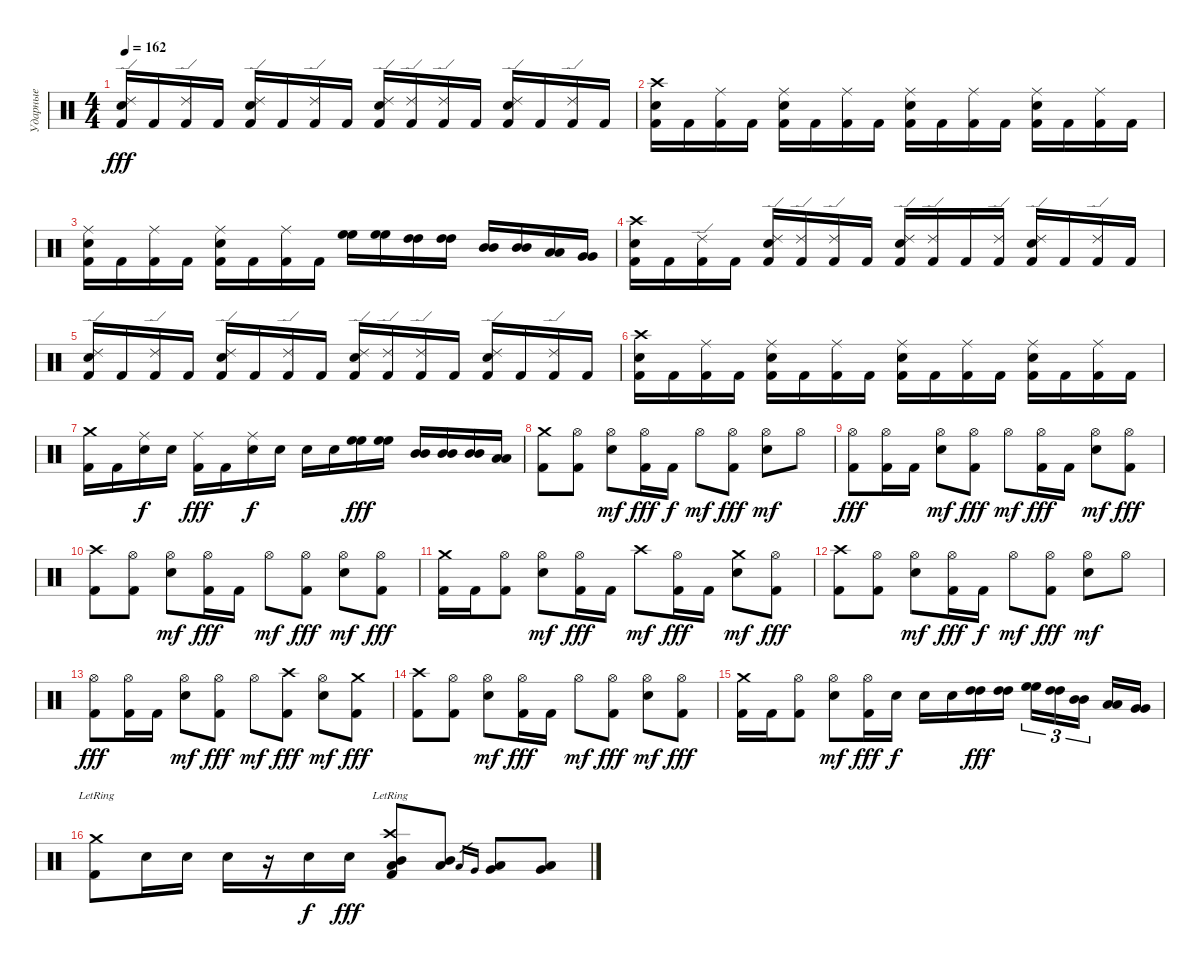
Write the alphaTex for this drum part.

\track ("Ударные" "Ударные") {instrument percussion}
\staff {score}
\articulation defaults
\ts (4 4)
\tempo 162
\clef neutral
\ks c
("Ride (edge) 2" "Electric Snare (hit)" "Kick (hit) 2").16{dy fff} "Kick (hit) 2".16 ("Ride (edge) 2" "Kick (hit) 2").16 "Kick (hit) 2".16 ("Ride (edge) 2" "Electric Snare (hit)" "Kick (hit) 2").16 "Kick (hit) 2".16 ("Ride (edge) 2" "Kick (hit) 2").16 "Kick (hit) 2".16 ("Ride (edge) 2" "Electric Snare (hit)" "Kick (hit) 2").16 ("Ride (edge) 2" "Kick (hit) 2").16 ("Ride (edge) 2" "Kick (hit) 2").16 "Kick (hit) 2".16 ("Ride (edge) 2" "Electric Snare (hit)" "Kick (hit) 2").16 "Kick (hit) 2".16 ("Ride (edge) 2" "Kick (hit) 2").16 "Kick (hit) 2".16 |
("Crash high (hit)" "Electric Snare (hit)" "Kick (hit) 2").16 "Kick (hit) 2".16 ("Ride (middle)" "Kick (hit) 2").16 "Kick (hit) 2".16 ("Ride (middle)" "Electric Snare (hit)" "Kick (hit) 2").16 "Kick (hit) 2".16 ("Ride (middle)" "Kick (hit) 2").16 "Kick (hit) 2".16 ("Ride (middle)" "Electric Snare (hit)" "Kick (hit) 2").16 "Kick (hit) 2".16 ("Ride (middle)" "Kick (hit) 2").16 "Kick (hit) 2".16 ("Ride (middle)" "Electric Snare (hit)" "Kick (hit) 2").16 "Kick (hit) 2".16 ("Ride (middle)" "Kick (hit) 2").16 "Kick (hit) 2".16 |
("Ride (middle)" "Electric Snare (hit)" "Kick (hit) 2").16 "Kick (hit) 2".16 ("Ride (middle)" "Kick (hit) 2").16 "Kick (hit) 2".16 ("Ride (middle)" "Electric Snare (hit)" "Kick (hit) 2").16 "Kick (hit) 2".16 ("Ride (middle)" "Kick (hit) 2").16 "Kick (hit) 2".16 ("High Floor Tom (hit)" "High Floor Tom (hit)").16 ("High Floor Tom (hit)" "High Floor Tom (hit)").16 ("High Tom (hit)" "High Tom (hit)").16 ("High Tom (hit)" "High Tom (hit)").16 ("Mid Tom (hit)" "Mid Tom (hit)").16 ("Mid Tom (hit)" "Mid Tom (hit)").16 ("Low Tom (hit)" "Low Tom (hit)").16 ("Very Low Tom (hit)" "Very Low Tom (hit)").16 |
("Crash high (hit)" "Electric Snare (hit)" "Kick (hit) 2").16 "Kick (hit) 2".16 ("Ride (edge) 2" "Kick (hit) 2").16 "Kick (hit) 2".16 ("Ride (edge) 2" "Electric Snare (hit)" "Kick (hit) 2").16 ("Ride (edge) 2" "Kick (hit) 2").16 ("Ride (edge) 2" "Kick (hit) 2").16 "Kick (hit) 2".16 ("Ride (edge) 2" "Electric Snare (hit)" "Kick (hit) 2").16 ("Ride (edge) 2" "Kick (hit) 2").16 "Kick (hit) 2".16 ("Ride (edge) 2" "Kick (hit) 2").16 ("Ride (edge) 2" "Electric Snare (hit)" "Kick (hit) 2").16 "Kick (hit) 2".16 ("Ride (edge) 2" "Kick (hit) 2").16 "Kick (hit) 2".16 |
("Ride (edge) 2" "Electric Snare (hit)" "Kick (hit) 2").16 "Kick (hit) 2".16 ("Ride (edge) 2" "Kick (hit) 2").16 "Kick (hit) 2".16 ("Ride (edge) 2" "Electric Snare (hit)" "Kick (hit) 2").16 "Kick (hit) 2".16 ("Ride (edge) 2" "Kick (hit) 2").16 "Kick (hit) 2".16 ("Ride (edge) 2" "Electric Snare (hit)" "Kick (hit) 2").16 ("Ride (edge) 2" "Kick (hit) 2").16 ("Ride (edge) 2" "Kick (hit) 2").16 "Kick (hit) 2".16 ("Ride (edge) 2" "Electric Snare (hit)" "Kick (hit) 2").16 "Kick (hit) 2".16 ("Ride (edge) 2" "Kick (hit) 2").16 "Kick (hit) 2".16 |
("Crash high (hit)" "Electric Snare (hit)" "Kick (hit) 2").16 "Kick (hit) 2".16 ("Ride (middle)" "Kick (hit) 2").16 "Kick (hit) 2".16 ("Ride (middle)" "Electric Snare (hit)" "Kick (hit) 2").16 "Kick (hit) 2".16 ("Ride (middle)" "Kick (hit) 2").16 "Kick (hit) 2".16 ("Ride (middle)" "Electric Snare (hit)" "Kick (hit) 2").16 "Kick (hit) 2".16 ("Ride (middle)" "Kick (hit) 2").16 "Kick (hit) 2".16 ("Ride (middle)" "Electric Snare (hit)" "Kick (hit) 2").16 "Kick (hit) 2".16 ("Ride (middle)" "Kick (hit) 2").16 "Kick (hit) 2".16 |
("Crash medium (hit)" "Kick (hit) 2").16 "Kick (hit) 2".16 ("Ride (middle)" "Electric Snare (hit)").16{dy f} "Electric Snare (hit)".16 ("Ride (middle)" "Kick (hit) 2").16{dy fff} "Kick (hit) 2".16 ("Ride (middle)" "Electric Snare (hit)").16{dy f} "Electric Snare (hit)".16 "Electric Snare (hit)".16 "Electric Snare (hit)".16 ("High Floor Tom (hit)" "High Floor Tom (hit)").16{dy fff} ("High Floor Tom (hit)" "High Floor Tom (hit)").16 ("Mid Tom (hit)" "Mid Tom (hit)").16 ("Mid Tom (hit)" "Mid Tom (hit)").16 ("Mid Tom (hit)" "Mid Tom (hit)").16 ("Low Tom (hit)" "Low Tom (hit)").16 |
("Crash medium (hit)" "Kick (hit) 2").8 ("Hi-Hat (open)" "Kick (hit) 2").8 ("Hi-Hat (open)" "Electric Snare (hit)").8{dy mf} ("Hi-Hat (open)" "Kick (hit) 2").16{dy fff} "Kick (hit) 2".16{dy f} "Hi-Hat (open)".8{dy mf} ("Hi-Hat (open)" "Kick (hit) 2").8{dy fff} ("Hi-Hat (open)" "Electric Snare (hit)").8{dy mf} "Hi-Hat (open)".8 |
("Hi-Hat (open)" "Kick (hit) 2").8{dy fff} ("Hi-Hat (open)" "Kick (hit) 2").16 "Kick (hit) 2".16 ("Hi-Hat (open)" "Electric Snare (hit)").8{dy mf} ("Hi-Hat (open)" "Kick (hit) 2").8{dy fff} "Hi-Hat (open)".8{dy mf} ("Hi-Hat (open)" "Kick (hit) 2").16{dy fff} "Kick (hit) 2".16 ("Hi-Hat (open)" "Electric Snare (hit)").8{dy mf} ("Hi-Hat (open)" "Kick (hit) 2").8{dy fff} |
("Crash high (hit)" "Kick (hit) 2").8 ("Hi-Hat (open)" "Kick (hit) 2").8 ("Hi-Hat (open)" "Electric Snare (hit)").8{dy mf} ("Hi-Hat (open)" "Kick (hit) 2").16{dy fff} "Kick (hit) 2".16 "Hi-Hat (open)".8{dy mf} ("Hi-Hat (open)" "Kick (hit) 2").8{dy fff} ("Hi-Hat (open)" "Electric Snare (hit)").8{dy mf} ("Hi-Hat (open)" "Kick (hit) 2").8{dy fff} |
("Crash medium (hit)" "Kick (hit) 2").16 "Kick (hit) 2".16 ("Hi-Hat (open)" "Kick (hit) 2").8 ("Hi-Hat (open)" "Electric Snare (hit)").8{dy mf} ("Hi-Hat (open)" "Kick (hit) 2").16{dy fff} "Kick (hit) 2".16 "Crash high (hit)".8{dy mf} ("Hi-Hat (open)" "Kick (hit) 2").16{dy fff} "Kick (hit) 2".16 ("Crash medium (hit)" "Electric Snare (hit)").8{dy mf} ("Hi-Hat (open)" "Kick (hit) 2").8{dy fff} |
("Crash high (hit)" "Kick (hit) 2").8 ("Hi-Hat (open)" "Kick (hit) 2").8 ("Hi-Hat (open)" "Electric Snare (hit)").8{dy mf} ("Hi-Hat (open)" "Kick (hit) 2").16{dy fff} "Kick (hit) 2".16{dy f} "Hi-Hat (open)".8{dy mf} ("Hi-Hat (open)" "Kick (hit) 2").8{dy fff} ("Hi-Hat (open)" "Electric Snare (hit)").8{dy mf} "Hi-Hat (open)".8 |
("Hi-Hat (open)" "Kick (hit) 2").8{dy fff} ("Hi-Hat (open)" "Kick (hit) 2").16 "Kick (hit) 2".16 ("Hi-Hat (open)" "Electric Snare (hit)").8{dy mf} ("Hi-Hat (open)" "Kick (hit) 2").8{dy fff} "Hi-Hat (open)".8{dy mf} ("Crash high (hit)" "Kick (hit) 2").8{dy fff} ("Hi-Hat (open)" "Electric Snare (hit)").8{dy mf} ("Crash medium (hit)" "Kick (hit) 2").8{dy fff} |
("Crash high (hit)" "Kick (hit) 2").8 ("Hi-Hat (open)" "Kick (hit) 2").8 ("Hi-Hat (open)" "Electric Snare (hit)").8{dy mf} ("Hi-Hat (open)" "Kick (hit) 2").16{dy fff} "Kick (hit) 2".16 "Hi-Hat (open)".8{dy mf} ("Hi-Hat (open)" "Kick (hit) 2").8{dy fff} ("Hi-Hat (open)" "Electric Snare (hit)").8{dy mf} ("Hi-Hat (open)" "Kick (hit) 2").8{dy fff} |
("Crash medium (hit)" "Kick (hit) 2").16 "Kick (hit) 2".16 ("Hi-Hat (open)" "Kick (hit) 2").8 ("Hi-Hat (open)" "Electric Snare (hit)").8{dy mf} ("Hi-Hat (open)" "Kick (hit) 2").16{dy fff} "Electric Snare (hit)".16{dy f} "Electric Snare (hit)".16 "Electric Snare (hit)".16 ("High Tom (hit)" "High Tom (hit)").16{dy fff} ("High Tom (hit)" "High Tom (hit)").16 ("High Floor Tom (hit)" "High Floor Tom (hit)").16{tu (3 2)} ("High Tom (hit)" "High Tom (hit)").16{tu (3 2)} ("Mid Tom (hit)" "Mid Tom (hit)").16{tu (3 2)} ("Low Tom (hit)" "Low Tom (hit)").16 ("Very Low Tom (hit)" "Very Low Tom (hit)").16 |
("Crash medium (hit)"{lr} "Kick (hit) 2").8 "Electric Snare (hit)".16 "Electric Snare (hit)".16 "Electric Snare (hit)".16 r.16 "Electric Snare (hit)".16{dy f} "Electric Snare (hit)".16{dy fff} ("Crash high (hit)"{lr} "Mid Tom (hit)" "Low Tom (hit)" "Kick (hit) 2").8 ("Mid Tom (hit)" "Low Tom (hit)").8 "Low Tom (hit)".16{gr} "Very Low Tom (hit)".16{gr} ("Low Tom (hit)" "Very Low Tom (hit)").8 ("Very Low Tom (hit)" "Low Floor Tom (hit)").8
